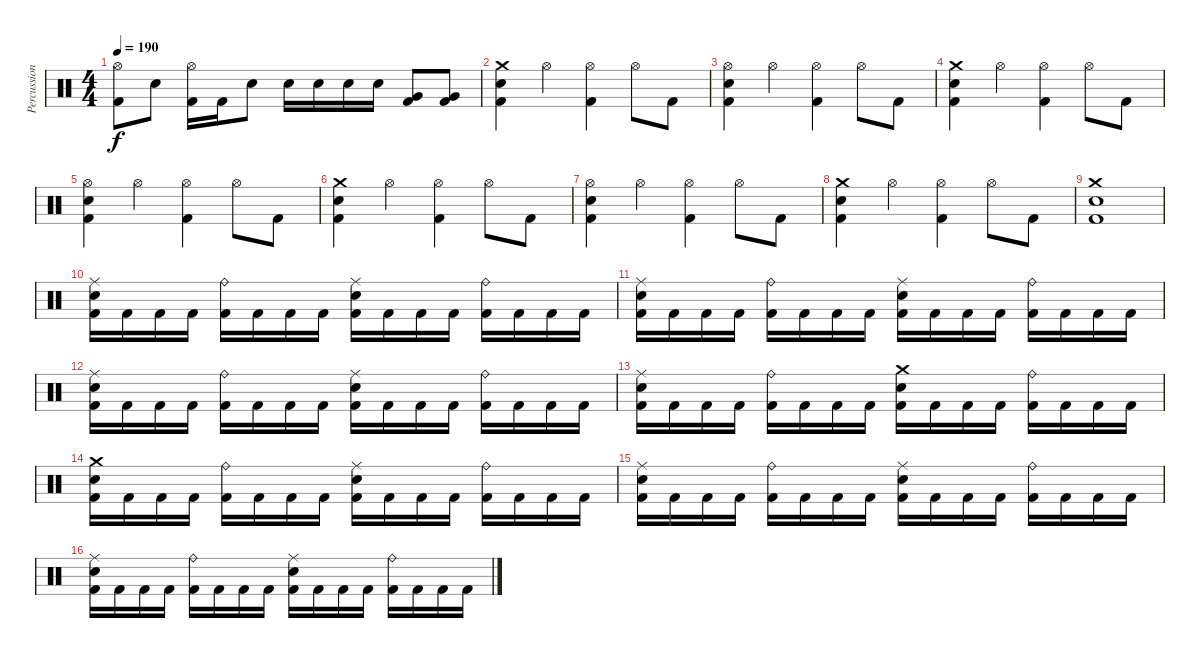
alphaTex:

\track ("Percussion" "Percussion") {instrument percussion}
\staff {score}
\articulation defaults
\ts (4 4)
\tempo 190
\clef neutral
\ks c
("Hi-Hat (open)" "Kick (hit) 2").8{dy f} "Snare (hit) 2".8 ("Hi-Hat (open)" "Kick (hit) 2").16 "Kick (hit) 2".16 "Snare (hit) 2".8 "Snare (hit) 2".16 "Snare (hit) 2".16 "Snare (hit) 2".16 "Snare (hit) 2".16 ("Very Low Tom (hit)" "Kick (hit) 2").8 ("Very Low Tom (hit)" "Kick (hit) 2").8 |
("Crash medium (hit)" "Snare (hit) 2" "Kick (hit) 2").4 "Hi-Hat (open)".4 ("Hi-Hat (open)" "Kick (hit) 2").4 "Hi-Hat (open)".8 "Kick (hit) 2".8 |
("Hi-Hat (open)" "Snare (hit) 2" "Kick (hit) 2").4 "Hi-Hat (open)".4 ("Hi-Hat (open)" "Kick (hit) 2").4 "Hi-Hat (open)".8 "Kick (hit) 2".8 |
("Crash medium (hit)" "Snare (hit) 2" "Kick (hit) 2").4 "Hi-Hat (open)".4 ("Hi-Hat (open)" "Kick (hit) 2").4 "Hi-Hat (open)".8 "Kick (hit) 2".8 |
("Hi-Hat (open)" "Snare (hit) 2" "Kick (hit) 2").4 "Hi-Hat (open)".4 ("Hi-Hat (open)" "Kick (hit) 2").4 "Hi-Hat (open)".8 "Kick (hit) 2".8 |
("Crash medium (hit)" "Snare (hit) 2" "Kick (hit) 2").4 "Hi-Hat (open)".4 ("Hi-Hat (open)" "Kick (hit) 2").4 "Hi-Hat (open)".8 "Kick (hit) 2".8 |
("Hi-Hat (open)" "Snare (hit) 2" "Kick (hit) 2").4 "Hi-Hat (open)".4 ("Hi-Hat (open)" "Kick (hit) 2").4 "Hi-Hat (open)".8 "Kick (hit) 2".8 |
("Crash medium (hit)" "Snare (hit) 2" "Kick (hit) 2").4 "Hi-Hat (open)".4 ("Hi-Hat (open)" "Kick (hit) 2").4 "Hi-Hat (open)".8 "Kick (hit) 2".8 |
("Crash medium (hit)" "Snare (hit) 2" "Kick (hit) 2").1 |
("Ride (middle)" "Snare (hit) 2" "Kick (hit) 2").16 "Kick (hit) 2".16 "Kick (hit) 2".16 "Kick (hit) 2".16 ("Ride (bell)" "Kick (hit) 2").16 "Kick (hit) 2".16 "Kick (hit) 2".16 "Kick (hit) 2".16 ("Ride (middle)" "Snare (hit) 2" "Kick (hit) 2").16 "Kick (hit) 2".16 "Kick (hit) 2".16 "Kick (hit) 2".16 ("Ride (bell)" "Kick (hit) 2").16 "Kick (hit) 2".16 "Kick (hit) 2".16 "Kick (hit) 2".16 |
("Ride (middle)" "Snare (hit) 2" "Kick (hit) 2").16 "Kick (hit) 2".16 "Kick (hit) 2".16 "Kick (hit) 2".16 ("Ride (bell)" "Kick (hit) 2").16 "Kick (hit) 2".16 "Kick (hit) 2".16 "Kick (hit) 2".16 ("Ride (middle)" "Snare (hit) 2" "Kick (hit) 2").16 "Kick (hit) 2".16 "Kick (hit) 2".16 "Kick (hit) 2".16 ("Ride (bell)" "Kick (hit) 2").16 "Kick (hit) 2".16 "Kick (hit) 2".16 "Kick (hit) 2".16 |
("Ride (middle)" "Snare (hit) 2" "Kick (hit) 2").16 "Kick (hit) 2".16 "Kick (hit) 2".16 "Kick (hit) 2".16 ("Ride (bell)" "Kick (hit) 2").16 "Kick (hit) 2".16 "Kick (hit) 2".16 "Kick (hit) 2".16 ("Ride (middle)" "Snare (hit) 2" "Kick (hit) 2").16 "Kick (hit) 2".16 "Kick (hit) 2".16 "Kick (hit) 2".16 ("Ride (bell)" "Kick (hit) 2").16 "Kick (hit) 2".16 "Kick (hit) 2".16 "Kick (hit) 2".16 |
("Ride (middle)" "Snare (hit) 2" "Kick (hit) 2").16 "Kick (hit) 2".16 "Kick (hit) 2".16 "Kick (hit) 2".16 ("Ride (bell)" "Kick (hit) 2").16 "Kick (hit) 2".16 "Kick (hit) 2".16 "Kick (hit) 2".16 ("Crash medium (hit)" "Snare (hit) 2" "Kick (hit) 2").16 "Kick (hit) 2".16 "Kick (hit) 2".16 "Kick (hit) 2".16 ("Ride (bell)" "Kick (hit) 2").16 "Kick (hit) 2".16 "Kick (hit) 2".16 "Kick (hit) 2".16 |
("Crash medium (hit)" "Snare (hit) 2" "Kick (hit) 2").16 "Kick (hit) 2".16 "Kick (hit) 2".16 "Kick (hit) 2".16 ("Ride (bell)" "Kick (hit) 2").16 "Kick (hit) 2".16 "Kick (hit) 2".16 "Kick (hit) 2".16 ("Ride (middle)" "Snare (hit) 2" "Kick (hit) 2").16 "Kick (hit) 2".16 "Kick (hit) 2".16 "Kick (hit) 2".16 ("Ride (bell)" "Kick (hit) 2").16 "Kick (hit) 2".16 "Kick (hit) 2".16 "Kick (hit) 2".16 |
("Ride (middle)" "Snare (hit) 2" "Kick (hit) 2").16 "Kick (hit) 2".16 "Kick (hit) 2".16 "Kick (hit) 2".16 ("Ride (bell)" "Kick (hit) 2").16 "Kick (hit) 2".16 "Kick (hit) 2".16 "Kick (hit) 2".16 ("Ride (middle)" "Snare (hit) 2" "Kick (hit) 2").16 "Kick (hit) 2".16 "Kick (hit) 2".16 "Kick (hit) 2".16 ("Ride (bell)" "Kick (hit) 2").16 "Kick (hit) 2".16 "Kick (hit) 2".16 "Kick (hit) 2".16 |
("Ride (middle)" "Snare (hit) 2" "Kick (hit) 2").16 "Kick (hit) 2".16 "Kick (hit) 2".16 "Kick (hit) 2".16 ("Ride (bell)" "Kick (hit) 2").16 "Kick (hit) 2".16 "Kick (hit) 2".16 "Kick (hit) 2".16 ("Ride (middle)" "Snare (hit) 2" "Kick (hit) 2").16 "Kick (hit) 2".16 "Kick (hit) 2".16 "Kick (hit) 2".16 ("Ride (bell)" "Kick (hit) 2").16 "Kick (hit) 2".16 "Kick (hit) 2".16 "Kick (hit) 2".16
